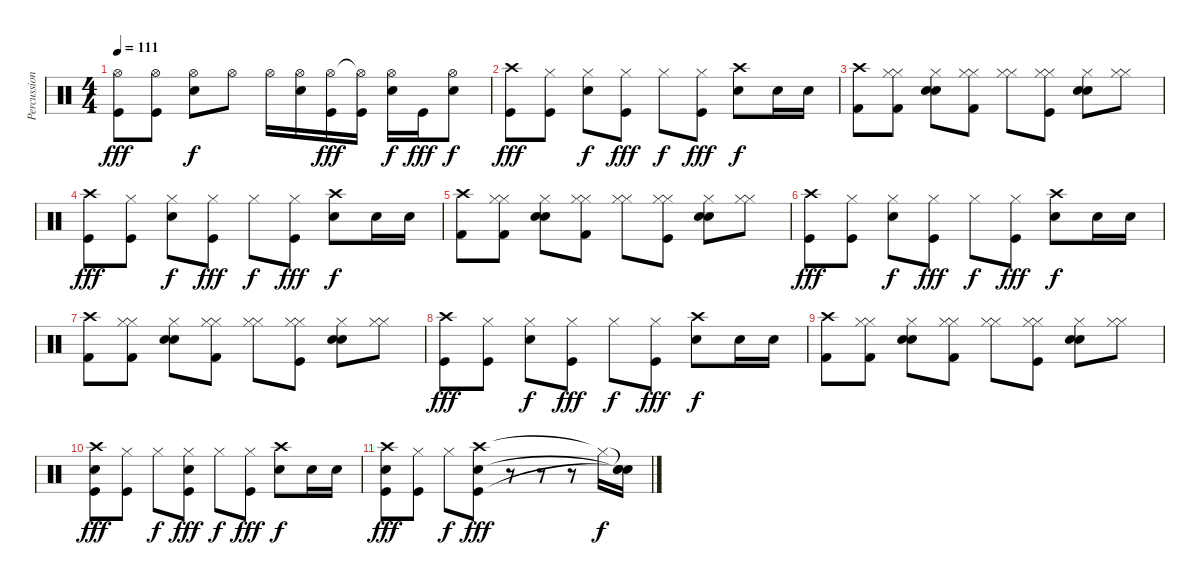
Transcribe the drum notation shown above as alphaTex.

\track ("Percussion" "Percussion") {instrument percussion}
\staff {score}
\articulation defaults
\ts (4 4)
\tempo 111
\clef neutral
\ks c
("Hi-Hat (open)" "Kick (hit)").8{dy fff} ("Hi-Hat (open)" "Kick (hit)").8 ("Hi-Hat (open)" "Snare (hit) 2").8{dy f} "Hi-Hat (open)".8 "Hi-Hat (open)".16 ("Hi-Hat (open)" "Snare (hit) 2").16 ("Hi-Hat (open)" "Kick (hit)").16{dy fff} ("Hi-Hat (open)"{t} "Kick (hit)").16 ("Hi-Hat (open)" "Snare (hit) 2").16{dy f} "Kick (hit)".16{dy fff} ("Hi-Hat (open)" "Snare (hit) 2").8{dy f} |
("Crash high (hit)" "Kick (hit)").8{dy fff} ("Hi-Hat (closed)" "Kick (hit)").8 ("Hi-Hat (closed)" "Snare (hit) 2").8{dy f} ("Hi-Hat (closed)" "Kick (hit)").8{dy fff} "Hi-Hat (closed)".8{dy f} ("Hi-Hat (closed)" "Kick (hit)").8{dy fff} ("Crash high (hit)" "Snare (hit) 2").8{dy f} "Snare (hit) 2".16 "Snare (hit) 2".16 |
("Crash high (hit)" "Kick (hit) 2").8 ("Hi-Hat (closed)" "Hi-Hat (closed)" "Kick (hit) 2").8 ("Hi-Hat (closed)" "Snare (hit) 2" "Electric Snare (hit)").8 ("Hi-Hat (closed)" "Hi-Hat (closed)" "Kick (hit) 2").8 ("Hi-Hat (closed)" "Hi-Hat (closed)").8 ("Hi-Hat (closed)" "Hi-Hat (closed)" "Kick (hit)").8 ("Hi-Hat (closed)" "Snare (hit) 2" "Electric Snare (hit)").8 ("Hi-Hat (closed)" "Hi-Hat (closed)").8 |
("Crash high (hit)" "Kick (hit)").8{dy fff} ("Hi-Hat (closed)" "Kick (hit)").8 ("Hi-Hat (closed)" "Snare (hit) 2").8{dy f} ("Hi-Hat (closed)" "Kick (hit)").8{dy fff} "Hi-Hat (closed)".8{dy f} ("Hi-Hat (closed)" "Kick (hit)").8{dy fff} ("Crash high (hit)" "Snare (hit) 2").8{dy f} "Snare (hit) 2".16 "Snare (hit) 2".16 |
("Crash high (hit)" "Kick (hit) 2").8 ("Hi-Hat (closed)" "Hi-Hat (closed)" "Kick (hit) 2").8 ("Hi-Hat (closed)" "Snare (hit) 2" "Electric Snare (hit)").8 ("Hi-Hat (closed)" "Hi-Hat (closed)" "Kick (hit) 2").8 ("Hi-Hat (closed)" "Hi-Hat (closed)").8 ("Hi-Hat (closed)" "Hi-Hat (closed)" "Kick (hit)").8 ("Hi-Hat (closed)" "Snare (hit) 2" "Electric Snare (hit)").8 ("Hi-Hat (closed)" "Hi-Hat (closed)").8 |
("Crash high (hit)" "Kick (hit)").8{dy fff} ("Hi-Hat (closed)" "Kick (hit)").8 ("Hi-Hat (closed)" "Snare (hit) 2").8{dy f} ("Hi-Hat (closed)" "Kick (hit)").8{dy fff} "Hi-Hat (closed)".8{dy f} ("Hi-Hat (closed)" "Kick (hit)").8{dy fff} ("Crash high (hit)" "Snare (hit) 2").8{dy f} "Snare (hit) 2".16 "Snare (hit) 2".16 |
("Crash high (hit)" "Kick (hit) 2").8 ("Hi-Hat (closed)" "Hi-Hat (closed)" "Kick (hit) 2").8 ("Hi-Hat (closed)" "Snare (hit) 2" "Electric Snare (hit)").8 ("Hi-Hat (closed)" "Hi-Hat (closed)" "Kick (hit) 2").8 ("Hi-Hat (closed)" "Hi-Hat (closed)").8 ("Hi-Hat (closed)" "Hi-Hat (closed)" "Kick (hit)").8 ("Hi-Hat (closed)" "Snare (hit) 2" "Electric Snare (hit)").8 ("Hi-Hat (closed)" "Hi-Hat (closed)").8 |
("Crash high (hit)" "Kick (hit)").8{dy fff} ("Hi-Hat (closed)" "Kick (hit)").8 ("Hi-Hat (closed)" "Snare (hit) 2").8{dy f} ("Hi-Hat (closed)" "Kick (hit)").8{dy fff} "Hi-Hat (closed)".8{dy f} ("Hi-Hat (closed)" "Kick (hit)").8{dy fff} ("Crash high (hit)" "Snare (hit) 2").8{dy f} "Snare (hit) 2".16 "Snare (hit) 2".16 |
("Crash high (hit)" "Kick (hit) 2").8 ("Hi-Hat (closed)" "Hi-Hat (closed)" "Kick (hit) 2").8 ("Hi-Hat (closed)" "Snare (hit) 2" "Electric Snare (hit)").8 ("Hi-Hat (closed)" "Hi-Hat (closed)" "Kick (hit) 2").8 ("Hi-Hat (closed)" "Hi-Hat (closed)").8 ("Hi-Hat (closed)" "Hi-Hat (closed)" "Kick (hit)").8 ("Hi-Hat (closed)" "Snare (hit) 2" "Electric Snare (hit)").8 ("Hi-Hat (closed)" "Hi-Hat (closed)").8 |
("Crash high (hit)" "Snare (hit) 2" "Kick (hit)").8{dy fff} ("Hi-Hat (closed)" "Kick (hit)").8 "Hi-Hat (closed)".8{dy f} ("Hi-Hat (closed)" "Snare (hit) 2" "Kick (hit)").8{dy fff} "Hi-Hat (closed)".8{dy f} ("Hi-Hat (closed)" "Kick (hit)").8{dy fff} ("Crash high (hit)" "Snare (hit) 2").8{dy f} "Snare (hit) 2".16 "Snare (hit) 2".16 |
("Crash high (hit)" "Snare (hit) 2" "Kick (hit)").8{dy fff} ("Hi-Hat (closed)" "Kick (hit)").8 "Hi-Hat (closed)".8{dy f} ("Crash high (hit)" "Snare (hit) 2" "Kick (hit)").8{dy fff} r.8 r.8 r.8 "Hi-Hat (closed)"{t}.16{dy f} ("Snare (hit)"{t} "Snare (hit) 2"{t} "Snare (hit)"{t}).16
